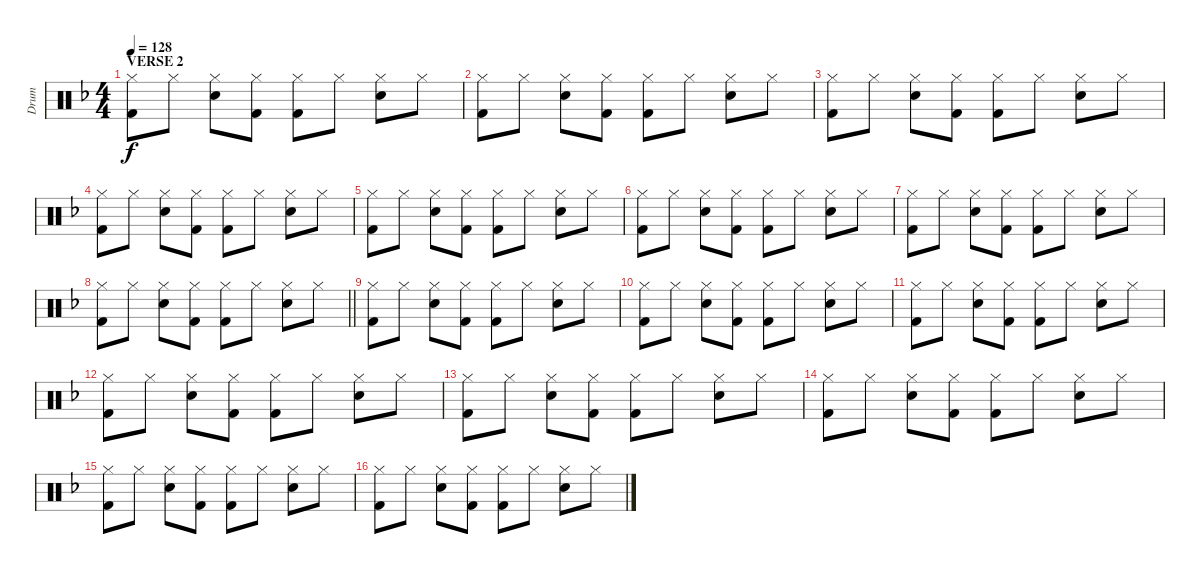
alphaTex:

\track ("Drum" "Drum") {instrument percussion}
\staff {score}
\articulation defaults
\ts (4 4)
\section ("" "VERSE 2")
\tempo 128
\clef neutral
\ks f
("Hi-Hat (closed)" "Kick (hit) 2").8{dy f} "Hi-Hat (closed)".8 ("Hi-Hat (closed)" "Electric Snare (hit)").8 ("Hi-Hat (closed)" "Kick (hit) 2").8 ("Hi-Hat (closed)" "Kick (hit) 2").8 "Hi-Hat (closed)".8 ("Hi-Hat (closed)" "Electric Snare (hit)").8 "Hi-Hat (closed)".8 |
("Hi-Hat (closed)" "Kick (hit) 2").8 "Hi-Hat (closed)".8 ("Hi-Hat (closed)" "Electric Snare (hit)").8 ("Hi-Hat (closed)" "Kick (hit) 2").8 ("Hi-Hat (closed)" "Kick (hit) 2").8 "Hi-Hat (closed)".8 ("Hi-Hat (closed)" "Electric Snare (hit)").8 "Hi-Hat (closed)".8 |
("Hi-Hat (closed)" "Kick (hit) 2").8 "Hi-Hat (closed)".8 ("Hi-Hat (closed)" "Electric Snare (hit)").8 ("Hi-Hat (closed)" "Kick (hit) 2").8 ("Hi-Hat (closed)" "Kick (hit) 2").8 "Hi-Hat (closed)".8 ("Hi-Hat (closed)" "Electric Snare (hit)").8 "Hi-Hat (closed)".8 |
("Hi-Hat (closed)" "Kick (hit) 2").8 "Hi-Hat (closed)".8 ("Hi-Hat (closed)" "Electric Snare (hit)").8 ("Hi-Hat (closed)" "Kick (hit) 2").8 ("Hi-Hat (closed)" "Kick (hit) 2").8 "Hi-Hat (closed)".8 ("Hi-Hat (closed)" "Electric Snare (hit)").8 "Hi-Hat (closed)".8 |
("Hi-Hat (closed)" "Kick (hit) 2").8 "Hi-Hat (closed)".8 ("Hi-Hat (closed)" "Electric Snare (hit)").8 ("Hi-Hat (closed)" "Kick (hit) 2").8 ("Hi-Hat (closed)" "Kick (hit) 2").8 "Hi-Hat (closed)".8 ("Hi-Hat (closed)" "Electric Snare (hit)").8 "Hi-Hat (closed)".8 |
("Hi-Hat (closed)" "Kick (hit) 2").8 "Hi-Hat (closed)".8 ("Hi-Hat (closed)" "Electric Snare (hit)").8 ("Hi-Hat (closed)" "Kick (hit) 2").8 ("Hi-Hat (closed)" "Kick (hit) 2").8 "Hi-Hat (closed)".8 ("Hi-Hat (closed)" "Electric Snare (hit)").8 "Hi-Hat (closed)".8 |
("Hi-Hat (closed)" "Kick (hit) 2").8 "Hi-Hat (closed)".8 ("Hi-Hat (closed)" "Electric Snare (hit)").8 ("Hi-Hat (closed)" "Kick (hit) 2").8 ("Hi-Hat (closed)" "Kick (hit) 2").8 "Hi-Hat (closed)".8 ("Hi-Hat (closed)" "Electric Snare (hit)").8 "Hi-Hat (closed)".8 |
\barLineRight lightlight
("Hi-Hat (closed)" "Kick (hit) 2").8 "Hi-Hat (closed)".8 ("Hi-Hat (closed)" "Electric Snare (hit)").8 ("Hi-Hat (closed)" "Kick (hit) 2").8 ("Hi-Hat (closed)" "Kick (hit) 2").8 "Hi-Hat (closed)".8 ("Hi-Hat (closed)" "Electric Snare (hit)").8 "Hi-Hat (closed)".8 |
("Hi-Hat (closed)" "Kick (hit) 2").8 "Hi-Hat (closed)".8 ("Hi-Hat (closed)" "Electric Snare (hit)").8 ("Hi-Hat (closed)" "Kick (hit) 2").8 ("Hi-Hat (closed)" "Kick (hit) 2").8 "Hi-Hat (closed)".8 ("Hi-Hat (closed)" "Electric Snare (hit)").8 "Hi-Hat (closed)".8 |
("Hi-Hat (closed)" "Kick (hit) 2").8 "Hi-Hat (closed)".8 ("Hi-Hat (closed)" "Electric Snare (hit)").8 ("Hi-Hat (closed)" "Kick (hit) 2").8 ("Hi-Hat (closed)" "Kick (hit) 2").8 "Hi-Hat (closed)".8 ("Hi-Hat (closed)" "Electric Snare (hit)").8 "Hi-Hat (closed)".8 |
("Hi-Hat (closed)" "Kick (hit) 2").8 "Hi-Hat (closed)".8 ("Hi-Hat (closed)" "Electric Snare (hit)").8 ("Hi-Hat (closed)" "Kick (hit) 2").8 ("Hi-Hat (closed)" "Kick (hit) 2").8 "Hi-Hat (closed)".8 ("Hi-Hat (closed)" "Electric Snare (hit)").8 "Hi-Hat (closed)".8 |
("Hi-Hat (closed)" "Kick (hit) 2").8 "Hi-Hat (closed)".8 ("Hi-Hat (closed)" "Electric Snare (hit)").8 ("Hi-Hat (closed)" "Kick (hit) 2").8 ("Hi-Hat (closed)" "Kick (hit) 2").8 "Hi-Hat (closed)".8 ("Hi-Hat (closed)" "Electric Snare (hit)").8 "Hi-Hat (closed)".8 |
("Hi-Hat (closed)" "Kick (hit) 2").8 "Hi-Hat (closed)".8 ("Hi-Hat (closed)" "Electric Snare (hit)").8 ("Hi-Hat (closed)" "Kick (hit) 2").8 ("Hi-Hat (closed)" "Kick (hit) 2").8 "Hi-Hat (closed)".8 ("Hi-Hat (closed)" "Electric Snare (hit)").8 "Hi-Hat (closed)".8 |
("Hi-Hat (closed)" "Kick (hit) 2").8 "Hi-Hat (closed)".8 ("Hi-Hat (closed)" "Electric Snare (hit)").8 ("Hi-Hat (closed)" "Kick (hit) 2").8 ("Hi-Hat (closed)" "Kick (hit) 2").8 "Hi-Hat (closed)".8 ("Hi-Hat (closed)" "Electric Snare (hit)").8 "Hi-Hat (closed)".8 |
("Hi-Hat (closed)" "Kick (hit) 2").8 "Hi-Hat (closed)".8 ("Hi-Hat (closed)" "Electric Snare (hit)").8 ("Hi-Hat (closed)" "Kick (hit) 2").8 ("Hi-Hat (closed)" "Kick (hit) 2").8 "Hi-Hat (closed)".8 ("Hi-Hat (closed)" "Electric Snare (hit)").8 "Hi-Hat (closed)".8 |
("Hi-Hat (closed)" "Kick (hit) 2").8 "Hi-Hat (closed)".8 ("Hi-Hat (closed)" "Electric Snare (hit)").8 ("Hi-Hat (closed)" "Kick (hit) 2").8 ("Hi-Hat (closed)" "Kick (hit) 2").8 "Hi-Hat (closed)".8 ("Hi-Hat (closed)" "Electric Snare (hit)").8 "Hi-Hat (closed)".8
